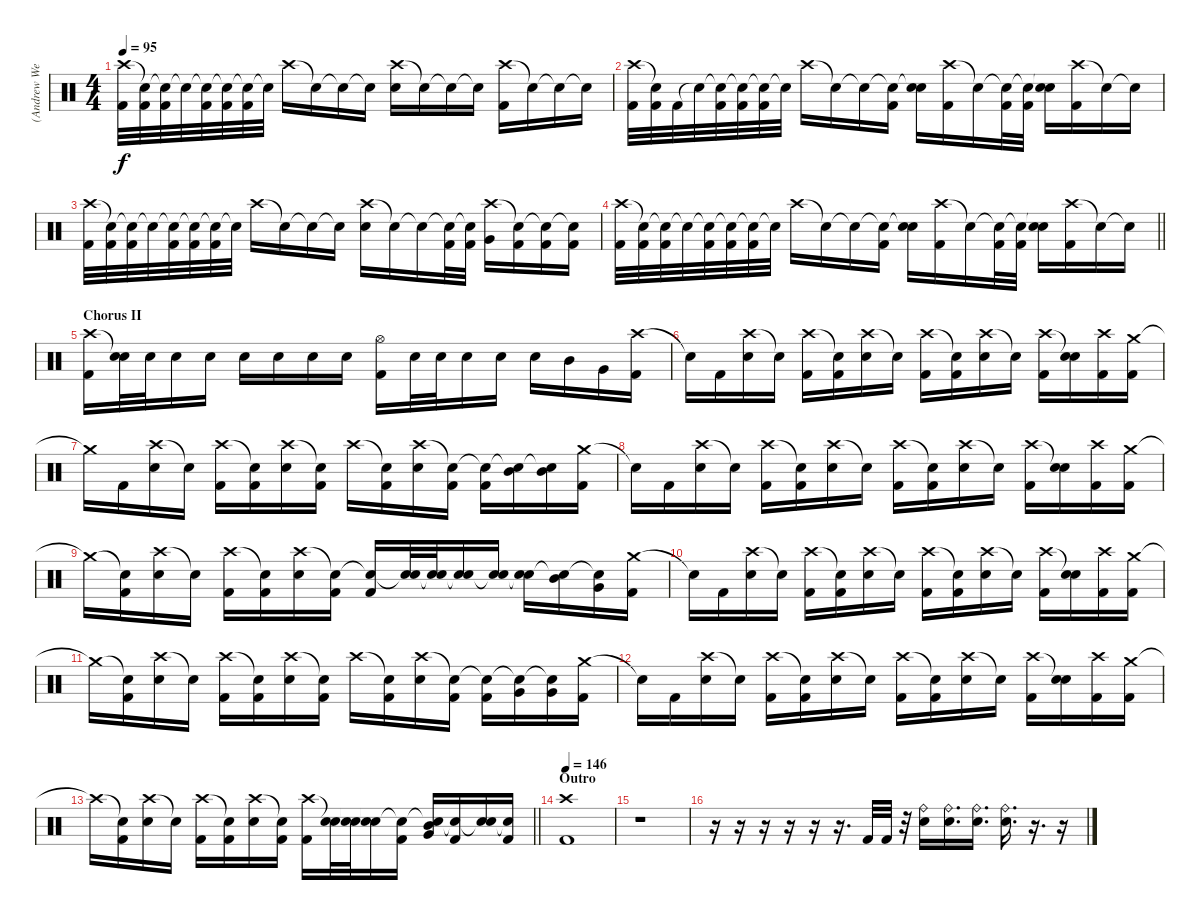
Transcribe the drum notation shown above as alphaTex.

\track ("(Andrew Wetzel) Drums" "(Andrew We") {instrument percussion}
\staff {score}
\articulation defaults
\ts (4 4)
\tempo 95
\clef neutral
\ks c
("Crash high (hit)" "Kick (hit) 2").32{dy f} ("Snare (hit)"{t} "Kick (hit) 2").32 ("Snare (hit)"{t} "Kick (hit) 2").32 "Snare (hit)"{t}.32 ("Snare (hit)"{t} "Kick (hit) 2").32 ("Snare (hit)"{t} "Kick (hit) 2").32 ("Snare (hit)"{t} "Kick (hit) 2").32 "Snare (hit)"{t}.32 "Crash high (hit)".16 "Snare (hit)"{t}.16 "Snare (hit)"{t}.16 "Snare (hit)"{t}.16 ("Crash high (hit)" "Electric Snare (hit)").16 "Snare (hit)"{t}.16 "Snare (hit)"{t}.16 "Snare (hit)"{t}.16 ("Crash high (hit)" "Kick (hit) 2").16 "Snare (hit)"{t}.16 "Snare (hit)"{t}.16 "Snare (hit)"{t}.16 |
("Crash high (hit)" "Kick (hit) 2").32 ("Snare (hit)"{t} "Kick (hit) 2").32 "Kick (hit) 2".32 "Snare (hit)"{t}.32 ("Snare (hit)"{t} "Kick (hit) 2").32 ("Snare (hit)"{t} "Kick (hit) 2").32 ("Snare (hit)"{t} "Kick (hit) 2").32 "Snare (hit)"{t}.32 "Crash high (hit)".16 "Snare (hit)"{t}.16 "Snare (hit)"{t}.16 ("Snare (hit)"{t} "Kick (hit) 2").16 ("Snare (hit)"{t} "Electric Snare (hit)").16 ("Crash high (hit)" "Kick (hit) 2").16 "Snare (hit)"{t}.16 ("Snare (hit)"{t} "Kick (hit) 2").32 ("Snare (hit)"{t} "Kick (hit) 2").32 ("Snare (hit)"{t} "Electric Snare (hit)").16 ("Crash high (hit)" "Kick (hit) 2").16 "Snare (hit)"{t}.16 "Snare (hit)"{t}.16 |
("Crash high (hit)" "Kick (hit) 2").32 ("Snare (hit)"{t} "Kick (hit) 2").32 ("Snare (hit)"{t} "Kick (hit) 2").32 "Snare (hit)"{t}.32 ("Snare (hit)"{t} "Kick (hit) 2").32 ("Snare (hit)"{t} "Kick (hit) 2").32 ("Snare (hit)"{t} "Kick (hit) 2").32 "Snare (hit)"{t}.32 "Crash high (hit)".16 "Snare (hit)"{t}.16 "Snare (hit)"{t}.16 "Snare (hit)"{t}.16 ("Crash high (hit)" "Electric Snare (hit)").16 "Snare (hit)"{t}.16 "Snare (hit)"{t}.16 ("Snare (hit)"{t} "Kick (hit) 2").32 ("Snare (hit)"{t} "Kick (hit) 2").32 ("Crash high (hit)" "Very Low Tom (hit)").16 ("Snare (hit)"{t} "Kick (hit) 2").16 ("Snare (hit)"{t} "Kick (hit) 2").16 ("Snare (hit)"{t} "Kick (hit) 2").16 |
\barLineRight lightlight
("Crash high (hit)" "Kick (hit) 2").32 ("Snare (hit)"{t} "Kick (hit) 2").32 ("Snare (hit)"{t} "Kick (hit) 2").32 "Snare (hit)"{t}.32 ("Snare (hit)"{t} "Kick (hit) 2").32 ("Snare (hit)"{t} "Kick (hit) 2").32 ("Snare (hit)"{t} "Kick (hit) 2").32 "Snare (hit)"{t}.32 "Crash high (hit)".16 "Snare (hit)"{t}.16 "Snare (hit)"{t}.16 ("Snare (hit)"{t} "Kick (hit) 2").16 ("Snare (hit)"{t} "Electric Snare (hit)").16 ("Crash high (hit)" "Kick (hit) 2").16 "Snare (hit)"{t}.16 ("Snare (hit)"{t} "Kick (hit) 2").32 ("Snare (hit)"{t} "Kick (hit) 2").32 ("Snare (hit)"{t} "Electric Snare (hit)").16 ("Crash high (hit)" "Kick (hit) 2").16 "Snare (hit)"{t}.16 "Snare (hit)"{t}.16 |
\section ("" "Chorus II")
("Crash high (hit)" "Kick (hit) 2").16 ("Snare (hit)"{t} "Electric Snare (hit)").32 "Electric Snare (hit)".32 "Electric Snare (hit)".16 "Electric Snare (hit)".16 "Electric Snare (hit)".16 "Electric Snare (hit)".16 "Electric Snare (hit)".16 "Electric Snare (hit)".16 ("Hi-Hat (open)" "Kick (hit) 2").16 "Electric Snare (hit)".32 "Electric Snare (hit)".32 "Electric Snare (hit)".16 "Electric Snare (hit)".16 "Electric Snare (hit)".16 "Mid Tom (hit)".16 "Very Low Tom (hit)".16 ("Crash high (hit)" "Kick (hit) 2").16 |
"Snare (hit)"{t}.16 "Kick (hit) 2".16 ("Crash high (hit)" "Electric Snare (hit)").16 "Snare (hit)"{t}.16 ("Crash high (hit)" "Kick (hit) 2").16 ("Snare (hit)"{t} "Kick (hit) 2").16 ("Crash high (hit)" "Electric Snare (hit)").16 "Snare (hit)"{t}.16 ("Crash high (hit)" "Kick (hit) 2").16 ("Snare (hit)"{t} "Kick (hit) 2").16 ("Crash high (hit)" "Electric Snare (hit)").16 "Snare (hit)"{t}.16 ("Crash high (hit)" "Kick (hit) 2").16 ("Snare (hit)"{t} "Electric Snare (hit)").16 ("Crash high (hit)" "Kick (hit) 2").16 ("Crash medium (hit)" "Kick (hit) 2").16 |
"Crash medium (hit)"{t}.16 "Kick (hit) 2".16 ("Crash high (hit)" "Electric Snare (hit)").16 "Snare (hit)"{t}.16 ("Crash high (hit)" "Kick (hit) 2").16 ("Snare (hit)"{t} "Kick (hit) 2").16 ("Crash high (hit)" "Electric Snare (hit)").16 ("Snare (hit)"{t} "Kick (hit) 2").16 "Crash high (hit)".16 ("Snare (hit)"{t} "Kick (hit) 2").16 ("Crash high (hit)" "Electric Snare (hit)").16 ("Snare (hit)"{t} "Kick (hit) 2").16 ("Snare (hit)"{t} "Kick (hit) 2").16 ("Snare (hit)"{t} "Mid Tom (hit)").16 ("Snare (hit)"{t} "Mid Tom (hit)").16 ("Crash medium (hit)" "Kick (hit) 2").16 |
"Snare (hit)"{t}.16 "Kick (hit) 2".16 ("Crash high (hit)" "Electric Snare (hit)").16 "Snare (hit)"{t}.16 ("Crash high (hit)" "Kick (hit) 2").16 ("Snare (hit)"{t} "Kick (hit) 2").16 ("Crash high (hit)" "Electric Snare (hit)").16 "Snare (hit)"{t}.16 ("Crash high (hit)" "Kick (hit) 2").16 ("Snare (hit)"{t} "Kick (hit) 2").16 ("Crash high (hit)" "Electric Snare (hit)").16 "Snare (hit)"{t}.16 ("Crash high (hit)" "Kick (hit) 2").16 ("Snare (hit)"{t} "Electric Snare (hit)").16 ("Crash high (hit)" "Kick (hit) 2").16 ("Crash medium (hit)" "Kick (hit) 2").16 |
"Crash medium (hit)"{t}.16 ("Snare (hit)"{t} "Kick (hit) 2").16 ("Crash high (hit)" "Electric Snare (hit)").16 "Snare (hit)"{t}.16 ("Crash high (hit)" "Kick (hit) 2").16 ("Snare (hit)"{t} "Kick (hit) 2").16 ("Crash high (hit)" "Electric Snare (hit)").16 ("Snare (hit)"{t} "Kick (hit) 2").16 ("Snare (hit)"{t} "Kick (hit) 2").16 ("Snare (hit)"{t} "Electric Snare (hit)").32 ("Snare (hit)"{t} "Electric Snare (hit)").32 ("Snare (hit)"{t} "Electric Snare (hit)").16 ("Snare (hit)"{t} "Electric Snare (hit)").16 ("Snare (hit)"{t} "Electric Snare (hit)").16 ("Snare (hit)"{t} "Mid Tom (hit)").16 ("Snare (hit)"{t} "Very Low Tom (hit)").16 ("Crash medium (hit)" "Kick (hit) 2").16 |
"Snare (hit)"{t}.16 "Kick (hit) 2".16 ("Crash high (hit)" "Electric Snare (hit)").16 "Snare (hit)"{t}.16 ("Crash high (hit)" "Kick (hit) 2").16 ("Snare (hit)"{t} "Kick (hit) 2").16 ("Crash high (hit)" "Electric Snare (hit)").16 "Snare (hit)"{t}.16 ("Crash high (hit)" "Kick (hit) 2").16 ("Snare (hit)"{t} "Kick (hit) 2").16 ("Crash high (hit)" "Electric Snare (hit)").16 "Snare (hit)"{t}.16 ("Crash high (hit)" "Kick (hit) 2").16 ("Snare (hit)"{t} "Electric Snare (hit)").16 ("Crash high (hit)" "Kick (hit) 2").16 ("Crash medium (hit)" "Kick (hit) 2").16 |
"Crash medium (hit)"{t}.16 ("Snare (hit)"{t} "Kick (hit) 2").16 ("Crash high (hit)" "Electric Snare (hit)").16 "Snare (hit)"{t}.16 ("Crash high (hit)" "Kick (hit) 2").16 ("Snare (hit)"{t} "Kick (hit) 2").16 ("Crash high (hit)" "Electric Snare (hit)").16 ("Snare (hit)"{t} "Kick (hit) 2").16 "Crash high (hit)".16 ("Snare (hit)"{t} "Kick (hit) 2").16 ("Crash high (hit)" "Electric Snare (hit)").16 ("Snare (hit)"{t} "Kick (hit) 2").16 ("Snare (hit)"{t} "Kick (hit) 2").16 ("Snare (hit)"{t} "Very Low Tom (hit)").16 ("Snare (hit)"{t} "Very Low Tom (hit)").16 ("Crash medium (hit)" "Kick (hit) 2").16 |
"Snare (hit)"{t}.16 "Kick (hit) 2".16 ("Crash high (hit)" "Electric Snare (hit)").16 "Snare (hit)"{t}.16 ("Crash high (hit)" "Kick (hit) 2").16 ("Snare (hit)"{t} "Kick (hit) 2").16 ("Crash high (hit)" "Electric Snare (hit)").16 "Snare (hit)"{t}.16 ("Crash high (hit)" "Kick (hit) 2").16 ("Snare (hit)"{t} "Kick (hit) 2").16 ("Crash high (hit)" "Electric Snare (hit)").16 "Snare (hit)"{t}.16 ("Crash high (hit)" "Kick (hit) 2").16 ("Snare (hit)"{t} "Electric Snare (hit)").16 ("Crash high (hit)" "Kick (hit) 2").16 ("Crash medium (hit)" "Kick (hit) 2").16 |
\barLineRight lightlight "Crash high (hit)"{t}.16
("Snare (hit)"{t} "Kick (hit) 2").16 ("Crash high (hit)" "Electric Snare (hit)").16 "Snare (hit)"{t}.16 ("Crash high (hit)" "Kick (hit) 2").16 ("Snare (hit)"{t} "Kick (hit) 2").16 ("Crash high (hit)" "Electric Snare (hit)").16 ("Snare (hit)"{t} "Kick (hit) 2").16 ("Crash high (hit)" "Kick (hit) 2").16 ("Snare (hit)"{t} "Electric Snare (hit)").32 ("Snare (hit)"{t} "Electric Snare (hit)").32 ("Snare (hit)"{t} "Electric Snare (hit)").16 ("Snare (hit)"{t} "Kick (hit) 2").16 ("Snare (hit)"{t} "Mid Tom (hit)" "Very Low Tom (hit)").16 ("Snare (hit)"{t} "Kick (hit) 2").16 ("Snare (hit)"{t} "Electric Snare (hit)").16 ("Snare (hit)"{t} "Kick (hit) 2").16 |
\section ("" "Outro")
\tempo 146
("Crash high (hit)" "Kick (hit) 2").1 |
r.1 |
r.16 r.16 r.16 r.16 r.16 r.16{d} "Kick (hit) 2".32 "Kick (hit) 2".32 r.32 ("Ride (bell)" "Electric Snare (hit)").16 ("Ride (bell)" "Electric Snare (hit)").16{d} ("Ride (bell)" "Electric Snare (hit)").16{d} ("Ride (bell)" "Electric Snare (hit)").16{d} r.16{d} r.16
